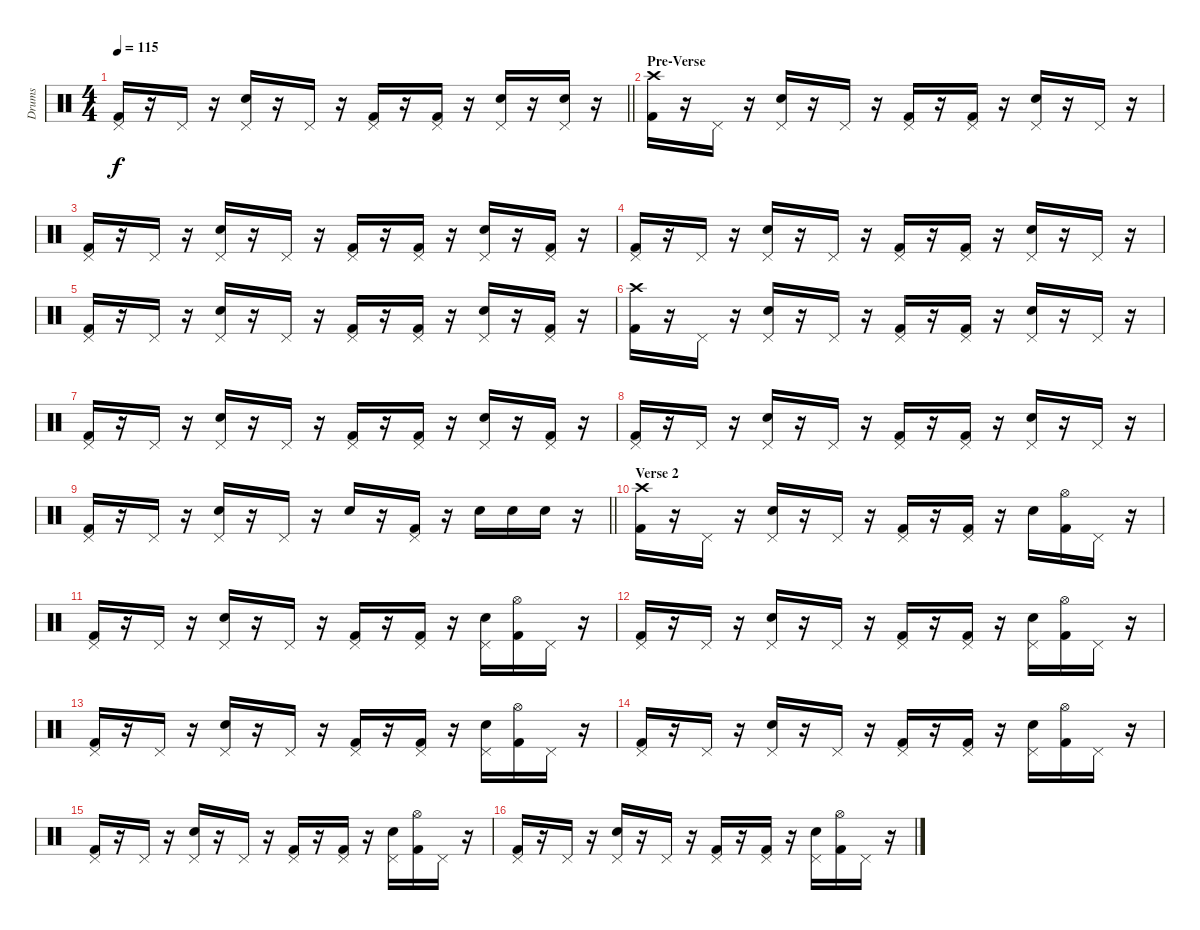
\track ("Drums" "Drums") {instrument percussion}
\staff {score}
\articulation defaults
\ts (4 4)
\tempo 115
\clef neutral
\barLineRight lightlight
\ks c
("Pedal Hi-Hat (hit)" "Kick (hit) 2").16{dy f} r.16 "Pedal Hi-Hat (hit)".16 r.16 ("Pedal Hi-Hat (hit)" "Snare (hit) 2").16 r.16 "Pedal Hi-Hat (hit)".16 r.16 ("Pedal Hi-Hat (hit)" "Kick (hit) 2").16 r.16 ("Pedal Hi-Hat (hit)" "Kick (hit) 2").16 r.16 ("Pedal Hi-Hat (hit)" "Snare (hit) 2").16 r.16 ("Pedal Hi-Hat (hit)" "Snare (hit) 2").16 r.16 |
\section ("" "Pre-Verse")
("Crash high (hit)" "Kick (hit) 2").16 r.16 "Pedal Hi-Hat (hit)".16 r.16 ("Pedal Hi-Hat (hit)" "Snare (hit) 2").16 r.16 "Pedal Hi-Hat (hit)".16 r.16 ("Pedal Hi-Hat (hit)" "Kick (hit) 2").16 r.16 ("Pedal Hi-Hat (hit)" "Kick (hit) 2").16 r.16 ("Pedal Hi-Hat (hit)" "Snare (hit) 2").16 r.16 "Pedal Hi-Hat (hit)".16 r.16 |
("Pedal Hi-Hat (hit)" "Kick (hit) 2").16 r.16 "Pedal Hi-Hat (hit)".16 r.16 ("Pedal Hi-Hat (hit)" "Snare (hit) 2").16 r.16 "Pedal Hi-Hat (hit)".16 r.16 ("Pedal Hi-Hat (hit)" "Kick (hit) 2").16 r.16 ("Pedal Hi-Hat (hit)" "Kick (hit) 2").16 r.16 ("Pedal Hi-Hat (hit)" "Snare (hit) 2").16 r.16 ("Pedal Hi-Hat (hit)" "Kick (hit) 2").16 r.16 |
("Pedal Hi-Hat (hit)" "Kick (hit) 2").16 r.16 "Pedal Hi-Hat (hit)".16 r.16 ("Pedal Hi-Hat (hit)" "Snare (hit) 2").16 r.16 "Pedal Hi-Hat (hit)".16 r.16 ("Pedal Hi-Hat (hit)" "Kick (hit) 2").16 r.16 ("Pedal Hi-Hat (hit)" "Kick (hit) 2").16 r.16 ("Pedal Hi-Hat (hit)" "Snare (hit) 2").16 r.16 "Pedal Hi-Hat (hit)".16 r.16 |
("Pedal Hi-Hat (hit)" "Kick (hit) 2").16 r.16 "Pedal Hi-Hat (hit)".16 r.16 ("Pedal Hi-Hat (hit)" "Snare (hit) 2").16 r.16 "Pedal Hi-Hat (hit)".16 r.16 ("Pedal Hi-Hat (hit)" "Kick (hit) 2").16 r.16 ("Pedal Hi-Hat (hit)" "Kick (hit) 2").16 r.16 ("Pedal Hi-Hat (hit)" "Snare (hit) 2").16 r.16 ("Pedal Hi-Hat (hit)" "Kick (hit) 2").16 r.16 |
("Crash high (hit)" "Kick (hit) 2").16 r.16 "Pedal Hi-Hat (hit)".16 r.16 ("Pedal Hi-Hat (hit)" "Snare (hit) 2").16 r.16 "Pedal Hi-Hat (hit)".16 r.16 ("Pedal Hi-Hat (hit)" "Kick (hit) 2").16 r.16 ("Pedal Hi-Hat (hit)" "Kick (hit) 2").16 r.16 ("Pedal Hi-Hat (hit)" "Snare (hit) 2").16 r.16 "Pedal Hi-Hat (hit)".16 r.16 |
("Pedal Hi-Hat (hit)" "Kick (hit) 2").16 r.16 "Pedal Hi-Hat (hit)".16 r.16 ("Pedal Hi-Hat (hit)" "Snare (hit) 2").16 r.16 "Pedal Hi-Hat (hit)".16 r.16 ("Pedal Hi-Hat (hit)" "Kick (hit) 2").16 r.16 ("Pedal Hi-Hat (hit)" "Kick (hit) 2").16 r.16 ("Pedal Hi-Hat (hit)" "Snare (hit) 2").16 r.16 ("Pedal Hi-Hat (hit)" "Kick (hit) 2").16 r.16 |
("Pedal Hi-Hat (hit)" "Kick (hit) 2").16 r.16 "Pedal Hi-Hat (hit)".16 r.16 ("Pedal Hi-Hat (hit)" "Snare (hit) 2").16 r.16 "Pedal Hi-Hat (hit)".16 r.16 ("Pedal Hi-Hat (hit)" "Kick (hit) 2").16 r.16 ("Pedal Hi-Hat (hit)" "Kick (hit) 2").16 r.16 ("Pedal Hi-Hat (hit)" "Snare (hit) 2").16 r.16 "Pedal Hi-Hat (hit)".16 r.16 |
\barLineRight lightlight
("Pedal Hi-Hat (hit)" "Kick (hit) 2").16 r.16 "Pedal Hi-Hat (hit)".16 r.16 ("Pedal Hi-Hat (hit)" "Snare (hit) 2").16 r.16 "Pedal Hi-Hat (hit)".16 r.16 "Snare (hit) 2".16 r.16 ("Pedal Hi-Hat (hit)" "Kick (hit) 2").16 r.16 "Snare (hit) 2".16 "Snare (hit) 2".16 "Snare (hit) 2".16 r.16 |
\section ("" "Verse 2")
("Crash high (hit)" "Kick (hit) 2").16 r.16 "Pedal Hi-Hat (hit)".16 r.16 ("Pedal Hi-Hat (hit)" "Snare (hit) 2").16 r.16 "Pedal Hi-Hat (hit)".16 r.16 ("Pedal Hi-Hat (hit)" "Kick (hit) 2").16 r.16 ("Pedal Hi-Hat (hit)" "Kick (hit) 2").16 r.16 "Snare (hit) 2".16 ("Hi-Hat (open)" "Kick (hit) 2").16 "Pedal Hi-Hat (hit)".16 r.16 |
("Pedal Hi-Hat (hit)" "Kick (hit) 2").16 r.16 "Pedal Hi-Hat (hit)".16 r.16 ("Pedal Hi-Hat (hit)" "Snare (hit) 2").16 r.16 "Pedal Hi-Hat (hit)".16 r.16 ("Pedal Hi-Hat (hit)" "Kick (hit) 2").16 r.16 ("Pedal Hi-Hat (hit)" "Kick (hit) 2").16 r.16 ("Pedal Hi-Hat (hit)" "Snare (hit) 2").16 ("Hi-Hat (open)" "Kick (hit) 2").16 "Pedal Hi-Hat (hit)".16 r.16 |
("Pedal Hi-Hat (hit)" "Kick (hit) 2").16 r.16 "Pedal Hi-Hat (hit)".16 r.16 ("Pedal Hi-Hat (hit)" "Snare (hit) 2").16 r.16 "Pedal Hi-Hat (hit)".16 r.16 ("Pedal Hi-Hat (hit)" "Kick (hit) 2").16 r.16 ("Pedal Hi-Hat (hit)" "Kick (hit) 2").16 r.16 ("Pedal Hi-Hat (hit)" "Snare (hit) 2").16 ("Hi-Hat (open)" "Kick (hit) 2").16 "Pedal Hi-Hat (hit)".16 r.16 |
("Pedal Hi-Hat (hit)" "Kick (hit) 2").16 r.16 "Pedal Hi-Hat (hit)".16 r.16 ("Pedal Hi-Hat (hit)" "Snare (hit) 2").16 r.16 "Pedal Hi-Hat (hit)".16 r.16 ("Pedal Hi-Hat (hit)" "Kick (hit) 2").16 r.16 ("Pedal Hi-Hat (hit)" "Kick (hit) 2").16 r.16 ("Pedal Hi-Hat (hit)" "Snare (hit) 2").16 ("Hi-Hat (open)" "Kick (hit) 2").16 "Pedal Hi-Hat (hit)".16 r.16 |
("Pedal Hi-Hat (hit)" "Kick (hit) 2").16 r.16 "Pedal Hi-Hat (hit)".16 r.16 ("Pedal Hi-Hat (hit)" "Snare (hit) 2").16 r.16 "Pedal Hi-Hat (hit)".16 r.16 ("Pedal Hi-Hat (hit)" "Kick (hit) 2").16 r.16 ("Pedal Hi-Hat (hit)" "Kick (hit) 2").16 r.16 ("Pedal Hi-Hat (hit)" "Snare (hit) 2").16 ("Hi-Hat (open)" "Kick (hit) 2").16 "Pedal Hi-Hat (hit)".16 r.16 |
("Pedal Hi-Hat (hit)" "Kick (hit) 2").16 r.16 "Pedal Hi-Hat (hit)".16 r.16 ("Pedal Hi-Hat (hit)" "Snare (hit) 2").16 r.16 "Pedal Hi-Hat (hit)".16 r.16 ("Pedal Hi-Hat (hit)" "Kick (hit) 2").16 r.16 ("Pedal Hi-Hat (hit)" "Kick (hit) 2").16 r.16 ("Pedal Hi-Hat (hit)" "Snare (hit) 2").16 ("Hi-Hat (open)" "Kick (hit) 2").16 "Pedal Hi-Hat (hit)".16 r.16 |
("Pedal Hi-Hat (hit)" "Kick (hit) 2").16 r.16 "Pedal Hi-Hat (hit)".16 r.16 ("Pedal Hi-Hat (hit)" "Snare (hit) 2").16 r.16 "Pedal Hi-Hat (hit)".16 r.16 ("Pedal Hi-Hat (hit)" "Kick (hit) 2").16 r.16 ("Pedal Hi-Hat (hit)" "Kick (hit) 2").16 r.16 ("Pedal Hi-Hat (hit)" "Snare (hit) 2").16 ("Hi-Hat (open)" "Kick (hit) 2").16 "Pedal Hi-Hat (hit)".16 r.16
